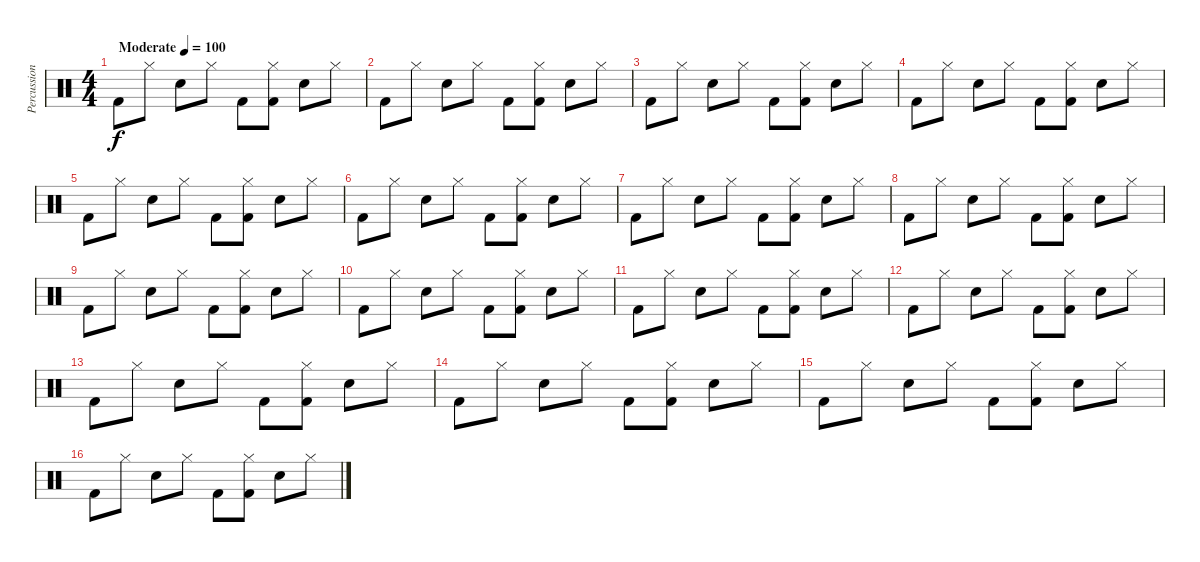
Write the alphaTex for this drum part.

\track ("Percussion" "Percussion") {instrument percussion}
\staff {score}
\articulation defaults
\ts (4 4)
\tempo (100 "Moderate")
\clef neutral
\ks c "Kick (hit) 2".8{dy f} "Hi-Hat (closed)".8 "Electric Snare (hit)".8 "Hi-Hat (closed)".8 "Kick (hit) 2".8
("Hi-Hat (closed)" "Kick (hit) 2").8 "Electric Snare (hit)".8 "Hi-Hat (closed)".8 |
"Kick (hit) 2".8 "Hi-Hat (closed)".8 "Electric Snare (hit)".8 "Hi-Hat (closed)".8 "Kick (hit) 2".8 ("Hi-Hat (closed)" "Kick (hit) 2").8 "Electric Snare (hit)".8 "Hi-Hat (closed)".8 |
"Kick (hit) 2".8 "Hi-Hat (closed)".8 "Electric Snare (hit)".8 "Hi-Hat (closed)".8 "Kick (hit) 2".8 ("Hi-Hat (closed)" "Kick (hit) 2").8 "Electric Snare (hit)".8 "Hi-Hat (closed)".8 |
"Kick (hit) 2".8 "Hi-Hat (closed)".8 "Electric Snare (hit)".8 "Hi-Hat (closed)".8 "Kick (hit) 2".8 ("Hi-Hat (closed)" "Kick (hit) 2").8 "Electric Snare (hit)".8 "Hi-Hat (closed)".8 |
"Kick (hit) 2".8 "Hi-Hat (closed)".8 "Electric Snare (hit)".8 "Hi-Hat (closed)".8 "Kick (hit) 2".8 ("Hi-Hat (closed)" "Kick (hit) 2").8 "Electric Snare (hit)".8 "Hi-Hat (closed)".8 |
"Kick (hit) 2".8 "Hi-Hat (closed)".8 "Electric Snare (hit)".8 "Hi-Hat (closed)".8 "Kick (hit) 2".8 ("Hi-Hat (closed)" "Kick (hit) 2").8 "Electric Snare (hit)".8 "Hi-Hat (closed)".8 |
"Kick (hit) 2".8 "Hi-Hat (closed)".8 "Electric Snare (hit)".8 "Hi-Hat (closed)".8 "Kick (hit) 2".8 ("Hi-Hat (closed)" "Kick (hit) 2").8 "Electric Snare (hit)".8 "Hi-Hat (closed)".8 |
"Kick (hit) 2".8 "Hi-Hat (closed)".8 "Electric Snare (hit)".8 "Hi-Hat (closed)".8 "Kick (hit) 2".8 ("Hi-Hat (closed)" "Kick (hit) 2").8 "Electric Snare (hit)".8 "Hi-Hat (closed)".8 |
"Kick (hit) 2".8 "Hi-Hat (closed)".8 "Electric Snare (hit)".8 "Hi-Hat (closed)".8 "Kick (hit) 2".8 ("Hi-Hat (closed)" "Kick (hit) 2").8 "Electric Snare (hit)".8 "Hi-Hat (closed)".8 |
"Kick (hit) 2".8 "Hi-Hat (closed)".8 "Electric Snare (hit)".8 "Hi-Hat (closed)".8 "Kick (hit) 2".8 ("Hi-Hat (closed)" "Kick (hit) 2").8 "Electric Snare (hit)".8 "Hi-Hat (closed)".8 |
"Kick (hit) 2".8 "Hi-Hat (closed)".8 "Electric Snare (hit)".8 "Hi-Hat (closed)".8 "Kick (hit) 2".8 ("Hi-Hat (closed)" "Kick (hit) 2").8 "Electric Snare (hit)".8 "Hi-Hat (closed)".8 |
"Kick (hit) 2".8 "Hi-Hat (closed)".8 "Electric Snare (hit)".8 "Hi-Hat (closed)".8 "Kick (hit) 2".8 ("Hi-Hat (closed)" "Kick (hit) 2").8 "Electric Snare (hit)".8 "Hi-Hat (closed)".8 |
"Kick (hit) 2".8 "Hi-Hat (closed)".8 "Electric Snare (hit)".8 "Hi-Hat (closed)".8 "Kick (hit) 2".8 ("Hi-Hat (closed)" "Kick (hit) 2").8 "Electric Snare (hit)".8 "Hi-Hat (closed)".8 |
"Kick (hit) 2".8 "Hi-Hat (closed)".8 "Electric Snare (hit)".8 "Hi-Hat (closed)".8 "Kick (hit) 2".8 ("Hi-Hat (closed)" "Kick (hit) 2").8 "Electric Snare (hit)".8 "Hi-Hat (closed)".8 |
"Kick (hit) 2".8 "Hi-Hat (closed)".8 "Electric Snare (hit)".8 "Hi-Hat (closed)".8 "Kick (hit) 2".8 ("Hi-Hat (closed)" "Kick (hit) 2").8 "Electric Snare (hit)".8 "Hi-Hat (closed)".8 |
"Kick (hit) 2".8 "Hi-Hat (closed)".8 "Electric Snare (hit)".8 "Hi-Hat (closed)".8 "Kick (hit) 2".8 ("Hi-Hat (closed)" "Kick (hit) 2").8 "Electric Snare (hit)".8 "Hi-Hat (closed)".8
